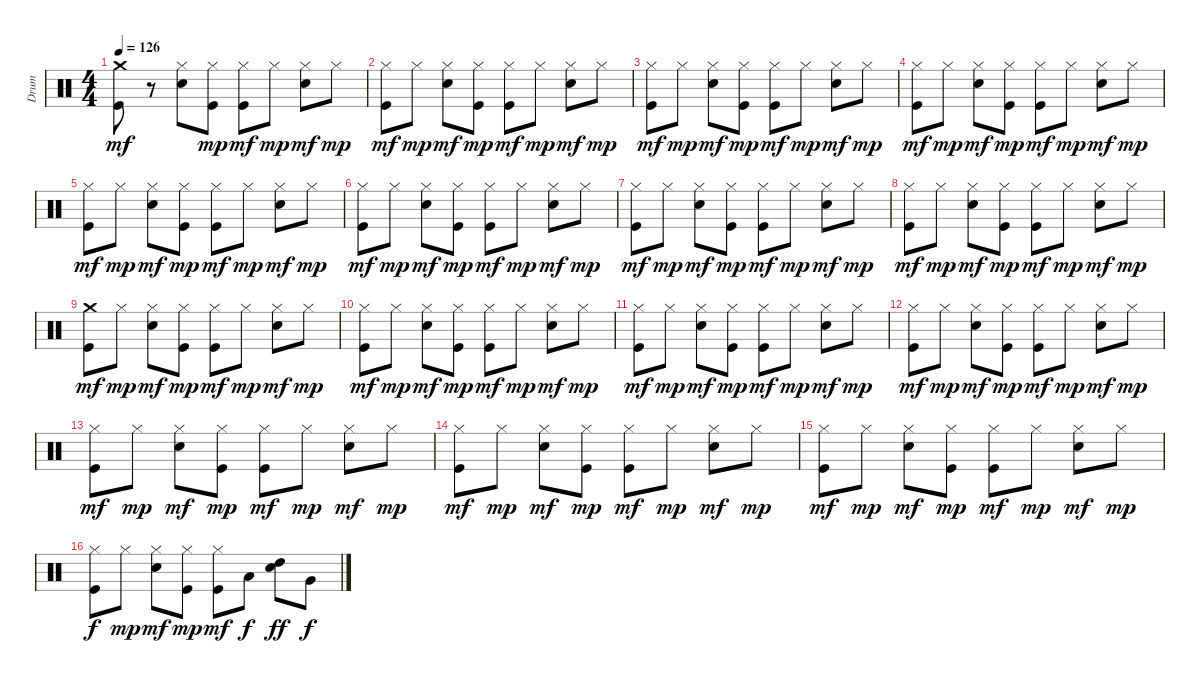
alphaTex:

\track ("Drum" "Drum") {instrument percussion}
\staff {score}
\articulation defaults
\ts (4 4)
\tempo 126
\clef neutral
\ks c
("Kick (hit)" "Crash medium (hit)").8{dy mf} r.8 ("Snare (hit) 2" "Hi-Hat (closed)").8 ("Kick (hit)" "Hi-Hat (closed)").8{dy mp} ("Kick (hit)" "Hi-Hat (closed)").8{dy mf} "Hi-Hat (closed)".8{dy mp} ("Snare (hit) 2" "Hi-Hat (closed)").8{dy mf} "Hi-Hat (closed)".8{dy mp} |
("Kick (hit)" "Hi-Hat (closed)").8{dy mf} "Hi-Hat (closed)".8{dy mp} ("Snare (hit) 2" "Hi-Hat (closed)").8{dy mf} ("Kick (hit)" "Hi-Hat (closed)").8{dy mp} ("Kick (hit)" "Hi-Hat (closed)").8{dy mf} "Hi-Hat (closed)".8{dy mp} ("Snare (hit) 2" "Hi-Hat (closed)").8{dy mf} "Hi-Hat (closed)".8{dy mp} |
("Kick (hit)" "Hi-Hat (closed)").8{dy mf} "Hi-Hat (closed)".8{dy mp} ("Snare (hit) 2" "Hi-Hat (closed)").8{dy mf} ("Kick (hit)" "Hi-Hat (closed)").8{dy mp} ("Kick (hit)" "Hi-Hat (closed)").8{dy mf} "Hi-Hat (closed)".8{dy mp} ("Snare (hit) 2" "Hi-Hat (closed)").8{dy mf} "Hi-Hat (closed)".8{dy mp} |
("Kick (hit)" "Hi-Hat (closed)").8{dy mf} "Hi-Hat (closed)".8{dy mp} ("Snare (hit) 2" "Hi-Hat (closed)").8{dy mf} ("Kick (hit)" "Hi-Hat (closed)").8{dy mp} ("Kick (hit)" "Hi-Hat (closed)").8{dy mf} "Hi-Hat (closed)".8{dy mp} ("Snare (hit) 2" "Hi-Hat (closed)").8{dy mf} "Hi-Hat (closed)".8{dy mp} |
("Kick (hit)" "Hi-Hat (closed)").8{dy mf} "Hi-Hat (closed)".8{dy mp} ("Snare (hit) 2" "Hi-Hat (closed)").8{dy mf} ("Kick (hit)" "Hi-Hat (closed)").8{dy mp} ("Kick (hit)" "Hi-Hat (closed)").8{dy mf} "Hi-Hat (closed)".8{dy mp} ("Snare (hit) 2" "Hi-Hat (closed)").8{dy mf} "Hi-Hat (closed)".8{dy mp} |
("Kick (hit)" "Hi-Hat (closed)").8{dy mf} "Hi-Hat (closed)".8{dy mp} ("Snare (hit) 2" "Hi-Hat (closed)").8{dy mf} ("Kick (hit)" "Hi-Hat (closed)").8{dy mp} ("Kick (hit)" "Hi-Hat (closed)").8{dy mf} "Hi-Hat (closed)".8{dy mp} ("Snare (hit) 2" "Hi-Hat (closed)").8{dy mf} "Hi-Hat (closed)".8{dy mp} |
("Kick (hit)" "Hi-Hat (closed)").8{dy mf} "Hi-Hat (closed)".8{dy mp} ("Snare (hit) 2" "Hi-Hat (closed)").8{dy mf} ("Kick (hit)" "Hi-Hat (closed)").8{dy mp} ("Kick (hit)" "Hi-Hat (closed)").8{dy mf} "Hi-Hat (closed)".8{dy mp} ("Snare (hit) 2" "Hi-Hat (closed)").8{dy mf} "Hi-Hat (closed)".8{dy mp} |
("Kick (hit)" "Hi-Hat (closed)").8{dy mf} "Hi-Hat (closed)".8{dy mp} ("Snare (hit) 2" "Hi-Hat (closed)").8{dy mf} ("Kick (hit)" "Hi-Hat (closed)").8{dy mp} ("Kick (hit)" "Hi-Hat (closed)").8{dy mf} "Hi-Hat (closed)".8{dy mp} ("Snare (hit) 2" "Hi-Hat (closed)").8{dy mf} "Hi-Hat (closed)".8{dy mp} |
("Kick (hit)" "Crash medium (hit)").8{dy mf} "Hi-Hat (closed)".8{dy mp} ("Snare (hit) 2" "Hi-Hat (closed)").8{dy mf} ("Kick (hit)" "Hi-Hat (closed)").8{dy mp} ("Kick (hit)" "Hi-Hat (closed)").8{dy mf} "Hi-Hat (closed)".8{dy mp} ("Snare (hit) 2" "Hi-Hat (closed)").8{dy mf} "Hi-Hat (closed)".8{dy mp} |
("Kick (hit)" "Hi-Hat (closed)").8{dy mf} "Hi-Hat (closed)".8{dy mp} ("Snare (hit) 2" "Hi-Hat (closed)").8{dy mf} ("Kick (hit)" "Hi-Hat (closed)").8{dy mp} ("Kick (hit)" "Hi-Hat (closed)").8{dy mf} "Hi-Hat (closed)".8{dy mp} ("Snare (hit) 2" "Hi-Hat (closed)").8{dy mf} "Hi-Hat (closed)".8{dy mp} |
("Kick (hit)" "Hi-Hat (closed)").8{dy mf} "Hi-Hat (closed)".8{dy mp} ("Snare (hit) 2" "Hi-Hat (closed)").8{dy mf} ("Kick (hit)" "Hi-Hat (closed)").8{dy mp} ("Kick (hit)" "Hi-Hat (closed)").8{dy mf} "Hi-Hat (closed)".8{dy mp} ("Snare (hit) 2" "Hi-Hat (closed)").8{dy mf} "Hi-Hat (closed)".8{dy mp} |
("Kick (hit)" "Hi-Hat (closed)").8{dy mf} "Hi-Hat (closed)".8{dy mp} ("Snare (hit) 2" "Hi-Hat (closed)").8{dy mf} ("Kick (hit)" "Hi-Hat (closed)").8{dy mp} ("Kick (hit)" "Hi-Hat (closed)").8{dy mf} "Hi-Hat (closed)".8{dy mp} ("Snare (hit) 2" "Hi-Hat (closed)").8{dy mf} "Hi-Hat (closed)".8{dy mp} |
("Kick (hit)" "Hi-Hat (closed)").8{dy mf} "Hi-Hat (closed)".8{dy mp} ("Snare (hit) 2" "Hi-Hat (closed)").8{dy mf} ("Kick (hit)" "Hi-Hat (closed)").8{dy mp} ("Kick (hit)" "Hi-Hat (closed)").8{dy mf} "Hi-Hat (closed)".8{dy mp} ("Snare (hit) 2" "Hi-Hat (closed)").8{dy mf} "Hi-Hat (closed)".8{dy mp} |
("Kick (hit)" "Hi-Hat (closed)").8{dy mf} "Hi-Hat (closed)".8{dy mp} ("Snare (hit) 2" "Hi-Hat (closed)").8{dy mf} ("Kick (hit)" "Hi-Hat (closed)").8{dy mp} ("Kick (hit)" "Hi-Hat (closed)").8{dy mf} "Hi-Hat (closed)".8{dy mp} ("Snare (hit) 2" "Hi-Hat (closed)").8{dy mf} "Hi-Hat (closed)".8{dy mp} |
("Kick (hit)" "Hi-Hat (closed)").8{dy mf} "Hi-Hat (closed)".8{dy mp} ("Snare (hit) 2" "Hi-Hat (closed)").8{dy mf} ("Kick (hit)" "Hi-Hat (closed)").8{dy mp} ("Kick (hit)" "Hi-Hat (closed)").8{dy mf} "Hi-Hat (closed)".8{dy mp} ("Snare (hit) 2" "Hi-Hat (closed)").8{dy mf} "Hi-Hat (closed)".8{dy mp} |
("Kick (hit)" "Hi-Hat (closed)").8{dy f} "Hi-Hat (closed)".8{dy mp} ("Snare (hit) 2" "Hi-Hat (closed)").8{dy mf} ("Kick (hit)" "Hi-Hat (closed)").8{dy mp} ("Kick (hit)" "Hi-Hat (closed)").8{dy mf} "Low Tom (hit)".8{dy f} ("Snare (hit) 2" "High Tom (hit)").8{dy ff} "Very Low Tom (hit)".8{dy f}
